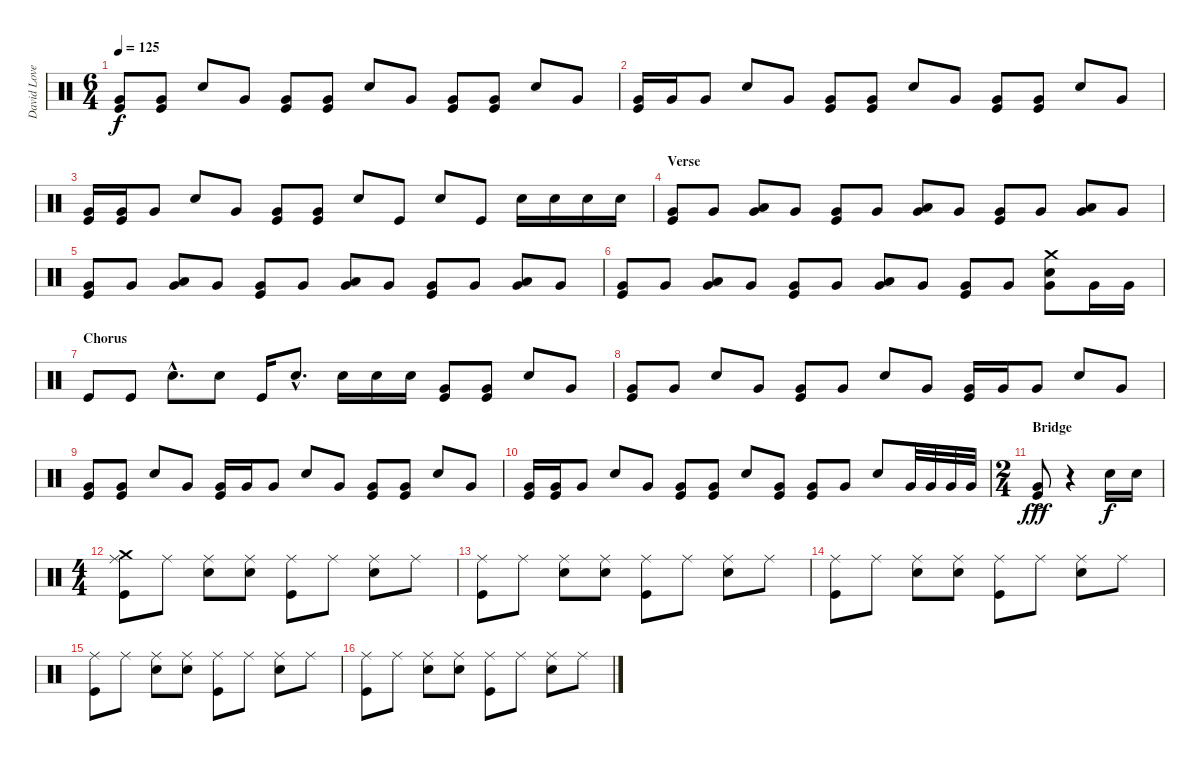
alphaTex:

\track ("David Lovering" "David Love") {instrument percussion}
\staff {score}
\articulation defaults
\ts (6 4)
\tempo 125
\clef neutral
\ks c
("Very Low Tom (hit)" "Kick (hit)").8{dy f} ("Very Low Tom (hit)" "Kick (hit)").8 "Snare (hit) 2".8 "Very Low Tom (hit)".8 ("Very Low Tom (hit)" "Kick (hit)").8 ("Very Low Tom (hit)" "Kick (hit)").8 "Snare (hit) 2".8 "Very Low Tom (hit)".8 ("Very Low Tom (hit)" "Kick (hit)").8 ("Very Low Tom (hit)" "Kick (hit)").8 "Snare (hit) 2".8 "Very Low Tom (hit)".8 |
("Very Low Tom (hit)" "Kick (hit)").16 "Very Low Tom (hit)".16 "Very Low Tom (hit)".8 "Snare (hit) 2".8 "Very Low Tom (hit)".8 ("Very Low Tom (hit)" "Kick (hit)").8 ("Very Low Tom (hit)" "Kick (hit)").8 "Snare (hit) 2".8 "Very Low Tom (hit)".8 ("Very Low Tom (hit)" "Kick (hit)").8 ("Very Low Tom (hit)" "Kick (hit)").8 "Snare (hit) 2".8 "Very Low Tom (hit)".8 |
("Very Low Tom (hit)" "Kick (hit)").16 ("Very Low Tom (hit)" "Kick (hit)").16 "Very Low Tom (hit)".8 "Snare (hit) 2".8 "Very Low Tom (hit)".8 ("Very Low Tom (hit)" "Kick (hit)").8 ("Very Low Tom (hit)" "Kick (hit)").8 "Snare (hit) 2".8 "Kick (hit)".8 "Snare (hit) 2".8 "Kick (hit)".8 "Snare (hit) 2".16 "Snare (hit) 2".16 "Snare (hit) 2".16 "Snare (hit) 2".16 |
\section ("" "Verse")
("Very Low Tom (hit)" "Kick (hit)").8 "Very Low Tom (hit)".8 ("Low Tom (hit)" "Very Low Tom (hit)").8 "Very Low Tom (hit)".8 ("Very Low Tom (hit)" "Kick (hit)").8 "Very Low Tom (hit)".8 ("Low Tom (hit)" "Very Low Tom (hit)").8 "Very Low Tom (hit)".8 ("Very Low Tom (hit)" "Kick (hit)").8 "Very Low Tom (hit)".8 ("Low Tom (hit)" "Very Low Tom (hit)").8 "Very Low Tom (hit)".8 |
("Very Low Tom (hit)" "Kick (hit)").8 "Very Low Tom (hit)".8 ("Low Tom (hit)" "Very Low Tom (hit)").8 "Very Low Tom (hit)".8 ("Very Low Tom (hit)" "Kick (hit)").8 "Very Low Tom (hit)".8 ("Low Tom (hit)" "Very Low Tom (hit)").8 "Very Low Tom (hit)".8 ("Very Low Tom (hit)" "Kick (hit)").8 "Very Low Tom (hit)".8 ("Low Tom (hit)" "Very Low Tom (hit)").8 "Very Low Tom (hit)".8 |
("Very Low Tom (hit)" "Kick (hit)").8 "Very Low Tom (hit)".8 ("Low Tom (hit)" "Very Low Tom (hit)").8 "Very Low Tom (hit)".8 ("Very Low Tom (hit)" "Kick (hit)").8 "Very Low Tom (hit)".8 ("Low Tom (hit)" "Very Low Tom (hit)").8 "Very Low Tom (hit)".8 ("Very Low Tom (hit)" "Kick (hit)").8 "Very Low Tom (hit)".8 ("Crash medium (hit)" "Snare (hit) 2" "Very Low Tom (hit)").8 "Very Low Tom (hit)".16 "Very Low Tom (hit)".16 |
\section ("" "Chorus")
"Kick (hit)".8 "Kick (hit)".8 "Snare (hit) 2"{hac}.8{d} "Snare (hit) 2".8 "Kick (hit)".16 "Snare (hit) 2"{hac}.8{d} "Snare (hit) 2".16 "Snare (hit) 2".16 "Snare (hit) 2".16 ("Very Low Tom (hit)" "Kick (hit)").8 ("Very Low Tom (hit)" "Kick (hit)").8 "Snare (hit) 2".8 "Very Low Tom (hit)".8 |
("Very Low Tom (hit)" "Kick (hit)").8 "Very Low Tom (hit)".8 "Snare (hit) 2".8 "Very Low Tom (hit)".8 ("Very Low Tom (hit)" "Kick (hit)").8 "Very Low Tom (hit)".8 "Snare (hit) 2".8 "Very Low Tom (hit)".8 ("Very Low Tom (hit)" "Kick (hit)").16 "Very Low Tom (hit)".16 "Very Low Tom (hit)".8 "Snare (hit) 2".8 "Very Low Tom (hit)".8 |
("Very Low Tom (hit)" "Kick (hit)").8 ("Very Low Tom (hit)" "Kick (hit)").8 "Snare (hit) 2".8 "Very Low Tom (hit)".8 ("Very Low Tom (hit)" "Kick (hit)").16 "Very Low Tom (hit)".16 "Very Low Tom (hit)".8 "Snare (hit) 2".8 "Very Low Tom (hit)".8 ("Very Low Tom (hit)" "Kick (hit)").8 ("Very Low Tom (hit)" "Kick (hit)").8 "Snare (hit) 2".8 "Very Low Tom (hit)".8 |
("Very Low Tom (hit)" "Kick (hit)").16 ("Very Low Tom (hit)" "Kick (hit)").16 "Very Low Tom (hit)".8 "Snare (hit) 2".8 "Very Low Tom (hit)".8 ("Very Low Tom (hit)" "Kick (hit)").8 ("Very Low Tom (hit)" "Kick (hit)").8 "Snare (hit) 2".8 ("Very Low Tom (hit)" "Kick (hit)").8 ("Very Low Tom (hit)" "Kick (hit)").8 "Very Low Tom (hit)".8 "Snare (hit) 2".8 "Very Low Tom (hit)".32 "Very Low Tom (hit)".32 "Very Low Tom (hit)".32 "Very Low Tom (hit)".32 |
\ts (2 4)
\section ("" "Bridge")
("Very Low Tom (hit)"{ac} "Kick (hit)").8{dy fff} r.4 "Snare (hit) 2".16{dy f} "Snare (hit) 2".16 |
\ts (4 4)
("Ride (middle)" "Crash medium (hit)" "Kick (hit)").8 "Ride (middle)".8 ("Ride (middle)" "Snare (hit) 2").8 ("Ride (middle)" "Snare (hit) 2").8 ("Ride (middle)" "Kick (hit)").8 "Ride (middle)".8 ("Ride (middle)" "Snare (hit) 2").8 "Ride (middle)".8 |
("Ride (middle)" "Kick (hit)").8 "Ride (middle)".8 ("Ride (middle)" "Snare (hit) 2").8 ("Ride (middle)" "Snare (hit) 2").8 ("Ride (middle)" "Kick (hit)").8 "Ride (middle)".8 ("Ride (middle)" "Snare (hit) 2").8 "Ride (middle)".8 |
("Ride (middle)" "Kick (hit)").8 "Ride (middle)".8 ("Ride (middle)" "Snare (hit) 2").8 ("Ride (middle)" "Snare (hit) 2").8 ("Ride (middle)" "Kick (hit)").8 "Ride (middle)".8 ("Ride (middle)" "Snare (hit) 2").8 "Ride (middle)".8 |
("Ride (middle)" "Kick (hit)").8 "Ride (middle)".8 ("Ride (middle)" "Snare (hit) 2").8 ("Ride (middle)" "Snare (hit) 2").8 ("Ride (middle)" "Kick (hit)").8 "Ride (middle)".8 ("Ride (middle)" "Snare (hit) 2").8 "Ride (middle)".8 |
("Ride (middle)" "Kick (hit)").8 "Ride (middle)".8 ("Ride (middle)" "Snare (hit) 2").8 ("Ride (middle)" "Snare (hit) 2").8 ("Ride (middle)" "Kick (hit)").8 "Ride (middle)".8 ("Ride (middle)" "Snare (hit) 2").8 "Ride (middle)".8
